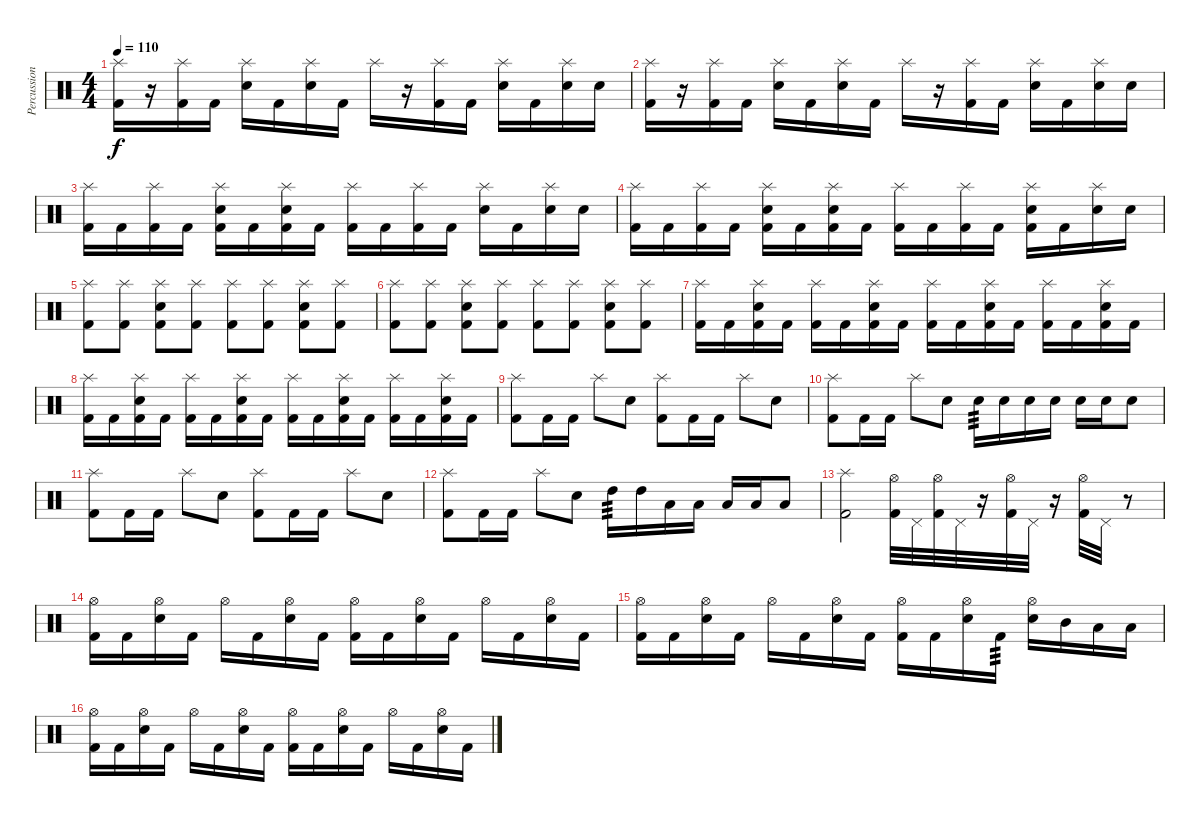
\track ("Percussion" "Percussion") {instrument percussion}
\staff {score}
\articulation defaults
\ts (4 4)
\tempo 110
\clef neutral
\ks c
("Splash (hit)" "Kick (hit) 2").16{dy f} r.16 ("Splash (hit)" "Kick (hit) 2").16 "Kick (hit) 2".16 ("Splash (hit)" "Electric Snare (hit)").16 "Kick (hit) 2".16 ("Splash (hit)" "Electric Snare (hit)").16 "Kick (hit) 2".16 "Splash (hit)".16 r.16 ("Splash (hit)" "Kick (hit) 2").16 "Kick (hit) 2".16 ("Splash (hit)" "Electric Snare (hit)").16 "Kick (hit) 2".16 ("Splash (hit)" "Electric Snare (hit)").16 "Electric Snare (hit)".16 |
("Splash (hit)" "Kick (hit) 2").16 r.16 ("Splash (hit)" "Kick (hit) 2").16 "Kick (hit) 2".16 ("Splash (hit)" "Electric Snare (hit)").16 "Kick (hit) 2".16 ("Splash (hit)" "Electric Snare (hit)").16 "Kick (hit) 2".16 "Splash (hit)".16 r.16 ("Splash (hit)" "Kick (hit) 2").16 "Kick (hit) 2".16 ("Splash (hit)" "Electric Snare (hit)").16 "Kick (hit) 2".16 ("Splash (hit)" "Electric Snare (hit)").16 "Electric Snare (hit)".16 |
("Splash (hit)" "Kick (hit) 2").16 "Kick (hit) 2".16 ("Splash (hit)" "Kick (hit) 2").16 "Kick (hit) 2".16 ("Splash (hit)" "Electric Snare (hit)" "Kick (hit) 2").16 "Kick (hit) 2".16 ("Splash (hit)" "Electric Snare (hit)" "Kick (hit) 2").16 "Kick (hit) 2".16 ("Splash (hit)" "Kick (hit) 2").16 "Kick (hit) 2".16 ("Splash (hit)" "Kick (hit) 2").16 "Kick (hit) 2".16 ("Splash (hit)" "Electric Snare (hit)").16 "Kick (hit) 2".16 ("Splash (hit)" "Electric Snare (hit)").16 "Electric Snare (hit)".16 |
("Splash (hit)" "Kick (hit) 2").16 "Kick (hit) 2".16 ("Splash (hit)" "Kick (hit) 2").16 "Kick (hit) 2".16 ("Splash (hit)" "Electric Snare (hit)" "Kick (hit) 2").16 "Kick (hit) 2".16 ("Splash (hit)" "Electric Snare (hit)" "Kick (hit) 2").16 "Kick (hit) 2".16 ("Splash (hit)" "Kick (hit) 2").16 "Kick (hit) 2".16 ("Splash (hit)" "Kick (hit) 2").16 "Kick (hit) 2".16 ("Splash (hit)" "Electric Snare (hit)" "Kick (hit) 2").16 "Kick (hit) 2".16 ("Splash (hit)" "Electric Snare (hit)").16 "Electric Snare (hit)".16 |
("Splash (hit)" "Kick (hit) 2").8 ("Splash (hit)" "Kick (hit) 2").8 ("Splash (hit)" "Electric Snare (hit)" "Kick (hit) 2").8 ("Splash (hit)" "Kick (hit) 2").8 ("Splash (hit)" "Kick (hit) 2").8 ("Splash (hit)" "Kick (hit) 2").8 ("Splash (hit)" "Electric Snare (hit)" "Kick (hit) 2").8 ("Splash (hit)" "Kick (hit) 2").8 |
("Splash (hit)" "Kick (hit) 2").8 ("Splash (hit)" "Kick (hit) 2").8 ("Splash (hit)" "Electric Snare (hit)" "Kick (hit) 2").8 ("Splash (hit)" "Kick (hit) 2").8 ("Splash (hit)" "Kick (hit) 2").8 ("Splash (hit)" "Kick (hit) 2").8 ("Splash (hit)" "Electric Snare (hit)" "Kick (hit) 2").8 ("Splash (hit)" "Kick (hit) 2").8 |
("Splash (hit)" "Kick (hit) 2").16 "Kick (hit) 2".16 ("Splash (hit)" "Electric Snare (hit)" "Kick (hit) 2").16 "Kick (hit) 2".16 ("Splash (hit)" "Kick (hit) 2").16 "Kick (hit) 2".16 ("Splash (hit)" "Electric Snare (hit)" "Kick (hit) 2").16 "Kick (hit) 2".16 ("Splash (hit)" "Kick (hit) 2").16 "Kick (hit) 2".16 ("Splash (hit)" "Electric Snare (hit)" "Kick (hit) 2").16 "Kick (hit) 2".16 ("Splash (hit)" "Kick (hit) 2").16 "Kick (hit) 2".16 ("Splash (hit)" "Electric Snare (hit)" "Kick (hit) 2").16 "Kick (hit) 2".16 |
("Splash (hit)" "Kick (hit) 2").16 "Kick (hit) 2".16 ("Splash (hit)" "Electric Snare (hit)" "Kick (hit) 2").16 "Kick (hit) 2".16 ("Splash (hit)" "Kick (hit) 2").16 "Kick (hit) 2".16 ("Splash (hit)" "Electric Snare (hit)" "Kick (hit) 2").16 "Kick (hit) 2".16 ("Splash (hit)" "Kick (hit) 2").16 "Kick (hit) 2".16 ("Splash (hit)" "Electric Snare (hit)" "Kick (hit) 2").16 "Kick (hit) 2".16 ("Splash (hit)" "Kick (hit) 2").16 "Kick (hit) 2".16 ("Splash (hit)" "Electric Snare (hit)" "Kick (hit) 2").16 "Kick (hit) 2".16 |
("Splash (hit)" "Kick (hit) 2").8 "Kick (hit) 2".16 "Kick (hit) 2".16 "Splash (hit)".8 "Electric Snare (hit)".8 ("Splash (hit)" "Kick (hit) 2").8 "Kick (hit) 2".16 "Kick (hit) 2".16 "Splash (hit)".8 "Electric Snare (hit)".8 |
("Splash (hit)" "Kick (hit) 2").8 "Kick (hit) 2".16 "Kick (hit) 2".16 "Splash (hit)".8 "Electric Snare (hit)".8 "Electric Snare (hit)".16{tp 3} "Electric Snare (hit)".16 "Electric Snare (hit)".16 "Electric Snare (hit)".16 "Electric Snare (hit)".16 "Electric Snare (hit)".16 "Electric Snare (hit)".8 |
("Splash (hit)" "Kick (hit) 2").8 "Kick (hit) 2".16 "Kick (hit) 2".16 "Splash (hit)".8 "Electric Snare (hit)".8 ("Splash (hit)" "Kick (hit) 2").8 "Kick (hit) 2".16 "Kick (hit) 2".16 "Splash (hit)".8 "Electric Snare (hit)".8 |
("Splash (hit)" "Kick (hit) 2").8 "Kick (hit) 2".16 "Kick (hit) 2".16 "Splash (hit)".8 "Electric Snare (hit)".8 "High Tom (hit)".16{tp 3} "High Tom (hit)".16 "Low Tom (hit)".16 "Low Tom (hit)".16 "Low Floor Tom (hit)".16 "Low Floor Tom (hit)".16 "Low Floor Tom (hit)".8 |
("Splash (hit)" "Kick (hit) 2").2 ("Hi-Hat (open)" "Kick (hit) 2").32 "Pedal Hi-Hat (hit)".32 ("Hi-Hat (open)" "Kick (hit) 2").32 "Pedal Hi-Hat (hit)".32 r.16 ("Hi-Hat (open)" "Kick (hit) 2").32 "Pedal Hi-Hat (hit)".32 r.16 ("Hi-Hat (open)" "Kick (hit) 2").32 "Pedal Hi-Hat (hit)".32 r.8 |
("Hi-Hat (open)" "Kick (hit) 2").16 "Kick (hit) 2".16 ("Hi-Hat (open)" "Electric Snare (hit)").16 "Kick (hit) 2".16 "Hi-Hat (open)".16 "Kick (hit) 2".16 ("Hi-Hat (open)" "Electric Snare (hit)").16 "Kick (hit) 2".16 ("Hi-Hat (open)" "Kick (hit) 2").16 "Kick (hit) 2".16 ("Hi-Hat (open)" "Electric Snare (hit)").16 "Kick (hit) 2".16 "Hi-Hat (open)".16 "Kick (hit) 2".16 ("Hi-Hat (open)" "Electric Snare (hit)").16 "Kick (hit) 2".16 |
("Hi-Hat (open)" "Kick (hit) 2").16 "Kick (hit) 2".16 ("Hi-Hat (open)" "Electric Snare (hit)").16 "Kick (hit) 2".16 "Hi-Hat (open)".16 "Kick (hit) 2".16 ("Hi-Hat (open)" "Electric Snare (hit)").16 "Kick (hit) 2".16 ("Hi-Hat (open)" "Kick (hit) 2").16 "Kick (hit) 2".16 ("Hi-Hat (open)" "Electric Snare (hit)").16 "Kick (hit) 2".16{tp 3} ("Hi-Hat (open)" "Electric Snare (hit)").16 "Mid Tom (hit)".16 "Low Tom (hit)".16 "Low Floor Tom (hit)".16 |
("Hi-Hat (open)" "Kick (hit) 2").16 "Kick (hit) 2".16 ("Hi-Hat (open)" "Electric Snare (hit)").16 "Kick (hit) 2".16 "Hi-Hat (open)".16 "Kick (hit) 2".16 ("Hi-Hat (open)" "Electric Snare (hit)").16 "Kick (hit) 2".16 ("Hi-Hat (open)" "Kick (hit) 2").16 "Kick (hit) 2".16 ("Hi-Hat (open)" "Electric Snare (hit)").16 "Kick (hit) 2".16 "Hi-Hat (open)".16 "Kick (hit) 2".16 ("Hi-Hat (open)" "Electric Snare (hit)").16 "Kick (hit) 2".16
